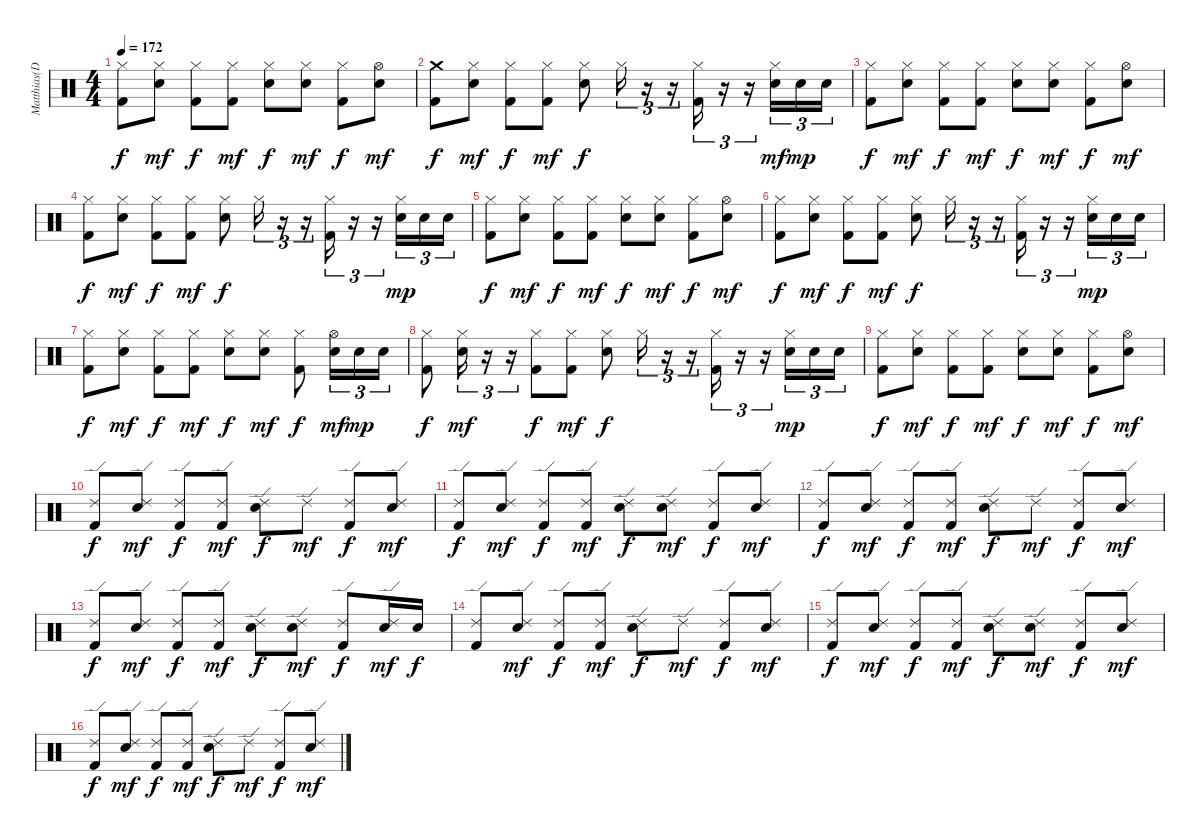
\track ("Matthias(Drums)" "Matthias(D") {instrument percussion}
\staff {score}
\articulation defaults
\ts (4 4)
\tempo 172
\clef neutral
\ks c
("Hi-Hat (closed)" "Kick (hit) 2").8{dy f} ("Hi-Hat (closed)" "Snare (hit) 2").8{dy mf} ("Hi-Hat (closed)" "Kick (hit) 2").8{dy f} ("Hi-Hat (closed)" "Kick (hit) 2").8{dy mf} ("Hi-Hat (closed)" "Snare (hit) 2").8{dy f} ("Hi-Hat (closed)" "Snare (hit) 2").8{dy mf} ("Hi-Hat (closed)" "Kick (hit) 2").8{dy f} ("Hi-Hat (open)" "Snare (hit) 2").8{dy mf} |
("Crash medium (hit)" "Kick (hit) 2").8{dy f} ("Hi-Hat (closed)" "Snare (hit) 2").8{dy mf} ("Hi-Hat (closed)" "Kick (hit) 2").8{dy f} ("Hi-Hat (closed)" "Kick (hit) 2").8{dy mf} ("Hi-Hat (closed)" "Snare (hit) 2").8{dy f} "Hi-Hat (closed)".16{tu (3 2)} r.16{tu (3 2)} r.16{tu (3 2)} ("Hi-Hat (closed)" "Kick (hit) 2").16{tu (3 2)} r.16{tu (3 2)} r.16{tu (3 2)} ("Hi-Hat (closed)" "Snare (hit) 2").16{tu (3 2) dy mf} "Snare (hit) 2".16{tu (3 2) dy mp} "Snare (hit) 2".16{tu (3 2)} |
("Hi-Hat (closed)" "Kick (hit) 2").8{dy f} ("Hi-Hat (closed)" "Snare (hit) 2").8{dy mf} ("Hi-Hat (closed)" "Kick (hit) 2").8{dy f} ("Hi-Hat (closed)" "Kick (hit) 2").8{dy mf} ("Hi-Hat (closed)" "Snare (hit) 2").8{dy f} ("Hi-Hat (closed)" "Snare (hit) 2").8{dy mf} ("Hi-Hat (closed)" "Kick (hit) 2").8{dy f} ("Hi-Hat (open)" "Snare (hit) 2").8{dy mf} |
("Hi-Hat (closed)" "Kick (hit) 2").8{dy f} ("Hi-Hat (closed)" "Snare (hit) 2").8{dy mf} ("Hi-Hat (closed)" "Kick (hit) 2").8{dy f} ("Hi-Hat (closed)" "Kick (hit) 2").8{dy mf} ("Hi-Hat (closed)" "Snare (hit) 2").8{dy f} "Hi-Hat (closed)".16{tu (3 2)} r.16{tu (3 2)} r.16{tu (3 2)} ("Hi-Hat (closed)" "Kick (hit) 2").16{tu (3 2)} r.16{tu (3 2)} r.16{tu (3 2)} ("Hi-Hat (closed)" "Snare (hit) 2").16{tu (3 2) dy mp} "Snare (hit) 2".16{tu (3 2)} "Snare (hit) 2".16{tu (3 2)} |
("Hi-Hat (closed)" "Kick (hit) 2").8{dy f} ("Hi-Hat (closed)" "Snare (hit) 2").8{dy mf} ("Hi-Hat (closed)" "Kick (hit) 2").8{dy f} ("Hi-Hat (closed)" "Kick (hit) 2").8{dy mf} ("Hi-Hat (closed)" "Snare (hit) 2").8{dy f} ("Hi-Hat (closed)" "Snare (hit) 2").8{dy mf} ("Hi-Hat (closed)" "Kick (hit) 2").8{dy f} ("Hi-Hat (open)" "Snare (hit) 2").8{dy mf} |
("Hi-Hat (closed)" "Kick (hit) 2").8{dy f} ("Hi-Hat (closed)" "Snare (hit) 2").8{dy mf} ("Hi-Hat (closed)" "Kick (hit) 2").8{dy f} ("Hi-Hat (closed)" "Kick (hit) 2").8{dy mf} ("Hi-Hat (closed)" "Snare (hit) 2").8{dy f} "Hi-Hat (closed)".16{tu (3 2)} r.16{tu (3 2)} r.16{tu (3 2)} ("Hi-Hat (closed)" "Kick (hit) 2").16{tu (3 2)} r.16{tu (3 2)} r.16{tu (3 2)} ("Hi-Hat (closed)" "Snare (hit) 2").16{tu (3 2) dy mp} "Snare (hit) 2".16{tu (3 2)} "Snare (hit) 2".16{tu (3 2)} |
("Hi-Hat (closed)" "Kick (hit) 2").8{dy f} ("Hi-Hat (closed)" "Snare (hit) 2").8{dy mf} ("Hi-Hat (closed)" "Kick (hit) 2").8{dy f} ("Hi-Hat (closed)" "Kick (hit) 2").8{dy mf} ("Hi-Hat (closed)" "Snare (hit) 2").8{dy f} ("Hi-Hat (closed)" "Snare (hit) 2").8{dy mf} ("Hi-Hat (closed)" "Kick (hit) 2").8{dy f} ("Hi-Hat (open)" "Snare (hit) 2").16{tu (3 2) dy mf} "Snare (hit) 2".16{tu (3 2) dy mp} "Snare (hit) 2".16{tu (3 2)} |
("Hi-Hat (closed)" "Kick (hit) 2").8{dy f} ("Hi-Hat (closed)" "Snare (hit) 2").16{tu (3 2) dy mf} r.16{tu (3 2)} r.16{tu (3 2)} ("Hi-Hat (closed)" "Kick (hit) 2").8{dy f} ("Hi-Hat (closed)" "Kick (hit) 2").8{dy mf} ("Hi-Hat (closed)" "Snare (hit) 2").8{dy f} "Hi-Hat (closed)".16{tu (3 2)} r.16{tu (3 2)} r.16{tu (3 2)} ("Hi-Hat (closed)" "Kick (hit) 2").16{tu (3 2)} r.16{tu (3 2)} r.16{tu (3 2)} ("Hi-Hat (closed)" "Snare (hit) 2").16{tu (3 2) dy mp} "Snare (hit) 2".16{tu (3 2)} "Snare (hit) 2".16{tu (3 2)} |
("Hi-Hat (closed)" "Kick (hit) 2").8{dy f} ("Hi-Hat (closed)" "Snare (hit) 2").8{dy mf} ("Hi-Hat (closed)" "Kick (hit) 2").8{dy f} ("Hi-Hat (closed)" "Kick (hit) 2").8{dy mf} ("Hi-Hat (closed)" "Snare (hit) 2").8{dy f} ("Hi-Hat (closed)" "Snare (hit) 2").8{dy mf} ("Hi-Hat (closed)" "Kick (hit) 2").8{dy f} ("Hi-Hat (open)" "Snare (hit) 2").8{dy mf} |
("Ride (edge) 2" "Kick (hit) 2").8{dy f} ("Ride (edge) 2" "Snare (hit) 2").8{dy mf} ("Ride (edge) 2" "Kick (hit) 2").8{dy f} ("Ride (edge) 2" "Kick (hit) 2").8{dy mf} ("Ride (edge) 2" "Snare (hit) 2").8{dy f} "Ride (edge) 2".8{dy mf} ("Ride (edge) 2" "Kick (hit) 2").8{dy f} ("Ride (edge) 2" "Snare (hit) 2").8{dy mf} |
("Ride (edge) 2" "Kick (hit) 2").8{dy f} ("Ride (edge) 2" "Snare (hit) 2").8{dy mf} ("Ride (edge) 2" "Kick (hit) 2").8{dy f} ("Ride (edge) 2" "Kick (hit) 2").8{dy mf} ("Ride (edge) 2" "Snare (hit) 2").8{dy f} ("Ride (edge) 2" "Snare (hit) 2").8{dy mf} ("Ride (edge) 2" "Kick (hit) 2").8{dy f} ("Ride (edge) 2" "Snare (hit) 2").8{dy mf} |
("Ride (edge) 2" "Kick (hit) 2").8{dy f} ("Ride (edge) 2" "Snare (hit) 2").8{dy mf} ("Ride (edge) 2" "Kick (hit) 2").8{dy f} ("Ride (edge) 2" "Kick (hit) 2").8{dy mf} ("Ride (edge) 2" "Snare (hit) 2").8{dy f} "Ride (edge) 2".8{dy mf} ("Ride (edge) 2" "Kick (hit) 2").8{dy f} ("Ride (edge) 2" "Snare (hit) 2").8{dy mf} |
("Ride (edge) 2" "Kick (hit) 2").8{dy f} ("Ride (edge) 2" "Snare (hit) 2").8{dy mf} ("Ride (edge) 2" "Kick (hit) 2").8{dy f} ("Ride (edge) 2" "Kick (hit) 2").8{dy mf} ("Ride (edge) 2" "Snare (hit) 2").8{dy f} ("Ride (edge) 2" "Snare (hit) 2").8{dy mf} ("Ride (edge) 2" "Kick (hit) 2").8{dy f} ("Ride (edge) 2" "Snare (hit) 2").16{dy mf} "Snare (hit) 2".16{dy f} |
("Ride (edge) 2" "Kick (hit) 2").8 ("Ride (edge) 2" "Snare (hit) 2").8{dy mf} ("Ride (edge) 2" "Kick (hit) 2").8{dy f} ("Ride (edge) 2" "Kick (hit) 2").8{dy mf} ("Ride (edge) 2" "Snare (hit) 2").8{dy f} "Ride (edge) 2".8{dy mf} ("Ride (edge) 2" "Kick (hit) 2").8{dy f} ("Ride (edge) 2" "Snare (hit) 2").8{dy mf} |
("Ride (edge) 2" "Kick (hit) 2").8{dy f} ("Ride (edge) 2" "Snare (hit) 2").8{dy mf} ("Ride (edge) 2" "Kick (hit) 2").8{dy f} ("Ride (edge) 2" "Kick (hit) 2").8{dy mf} ("Ride (edge) 2" "Snare (hit) 2").8{dy f} ("Ride (edge) 2" "Snare (hit) 2").8{dy mf} ("Ride (edge) 2" "Kick (hit) 2").8{dy f} ("Ride (edge) 2" "Snare (hit) 2").8{dy mf} |
("Ride (edge) 2" "Kick (hit) 2").8{dy f} ("Ride (edge) 2" "Snare (hit) 2").8{dy mf} ("Ride (edge) 2" "Kick (hit) 2").8{dy f} ("Ride (edge) 2" "Kick (hit) 2").8{dy mf} ("Ride (edge) 2" "Snare (hit) 2").8{dy f} "Ride (edge) 2".8{dy mf} ("Ride (edge) 2" "Kick (hit) 2").8{dy f} ("Ride (edge) 2" "Snare (hit) 2").8{dy mf}
